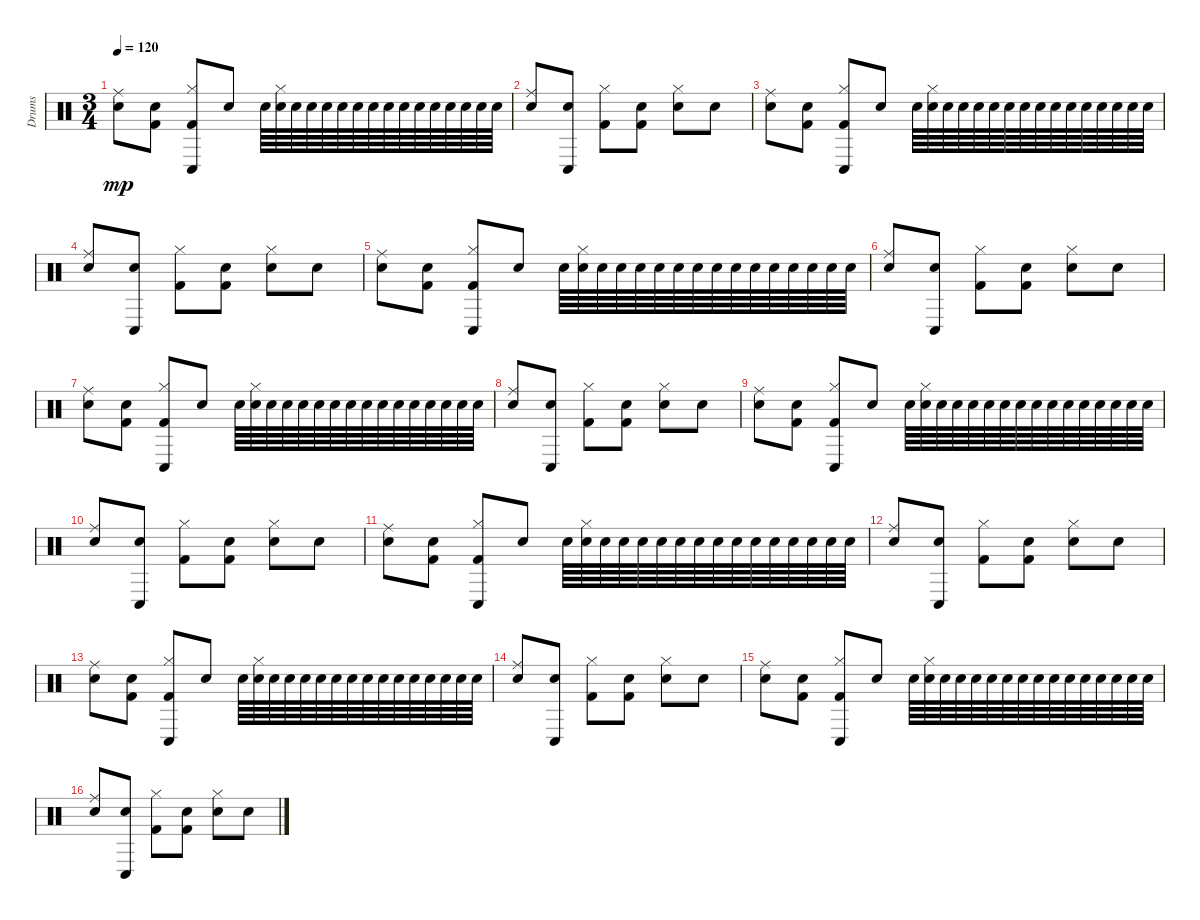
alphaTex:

\track ("Drums" "Drums") {instrument percussion}
\staff {score}
\articulation defaults
\ts (3 4)
\tempo 120
\clef neutral
\ks c
("Ride (middle)" "Snare (hit) 2").8{dy mp} ("Snare (hit) 2" "Kick (hit) 2").8 ("Hi-Hat (closed)" "Kick (hit) 2" "Conga low (hit)").8 "Snare (hit) 2".8 "Snare (hit) 2".64 ("Hi-Hat (closed)" "Snare (hit) 2").64 "Snare (hit) 2".64 "Snare (hit) 2".64 "Snare (hit) 2".64 "Snare (hit) 2".64 "Snare (hit) 2".64 "Snare (hit) 2".64 "Snare (hit) 2".64 "Snare (hit) 2".64 "Snare (hit) 2".64 "Snare (hit) 2".64 "Snare (hit) 2".64 "Snare (hit) 2".64 "Snare (hit) 2".64 "Snare (hit) 2".64 |
("Ride (middle)" "Snare (hit) 2").8 ("Snare (hit) 2" "Conga low (hit)").8 ("Hi-Hat (closed)" "Kick (hit) 2").8 ("Snare (hit) 2" "Kick (hit) 2").8 ("Hi-Hat (closed)" "Snare (hit) 2").8 "Snare (hit) 2".8 |
("Ride (middle)" "Snare (hit) 2").8 ("Snare (hit) 2" "Kick (hit) 2").8 ("Hi-Hat (closed)" "Kick (hit) 2" "Conga low (hit)").8 "Snare (hit) 2".8 "Snare (hit) 2".64 ("Hi-Hat (closed)" "Snare (hit) 2").64 "Snare (hit) 2".64 "Snare (hit) 2".64 "Snare (hit) 2".64 "Snare (hit) 2".64 "Snare (hit) 2".64 "Snare (hit) 2".64 "Snare (hit) 2".64 "Snare (hit) 2".64 "Snare (hit) 2".64 "Snare (hit) 2".64 "Snare (hit) 2".64 "Snare (hit) 2".64 "Snare (hit) 2".64 "Snare (hit) 2".64 |
("Ride (middle)" "Snare (hit) 2").8 ("Snare (hit) 2" "Conga low (hit)").8 ("Hi-Hat (closed)" "Kick (hit) 2").8 ("Snare (hit) 2" "Kick (hit) 2").8 ("Hi-Hat (closed)" "Snare (hit) 2").8 "Snare (hit) 2".8 |
("Ride (middle)" "Snare (hit) 2").8 ("Snare (hit) 2" "Kick (hit) 2").8 ("Hi-Hat (closed)" "Kick (hit) 2" "Conga low (hit)").8 "Snare (hit) 2".8 "Snare (hit) 2".64 ("Hi-Hat (closed)" "Snare (hit) 2").64 "Snare (hit) 2".64 "Snare (hit) 2".64 "Snare (hit) 2".64 "Snare (hit) 2".64 "Snare (hit) 2".64 "Snare (hit) 2".64 "Snare (hit) 2".64 "Snare (hit) 2".64 "Snare (hit) 2".64 "Snare (hit) 2".64 "Snare (hit) 2".64 "Snare (hit) 2".64 "Snare (hit) 2".64 "Snare (hit) 2".64 |
("Ride (middle)" "Snare (hit) 2").8 ("Snare (hit) 2" "Conga low (hit)").8 ("Hi-Hat (closed)" "Kick (hit) 2").8 ("Snare (hit) 2" "Kick (hit) 2").8 ("Hi-Hat (closed)" "Snare (hit) 2").8 "Snare (hit) 2".8 |
("Ride (middle)" "Snare (hit) 2").8 ("Snare (hit) 2" "Kick (hit) 2").8 ("Hi-Hat (closed)" "Kick (hit) 2" "Conga low (hit)").8 "Snare (hit) 2".8 "Snare (hit) 2".64 ("Hi-Hat (closed)" "Snare (hit) 2").64 "Snare (hit) 2".64 "Snare (hit) 2".64 "Snare (hit) 2".64 "Snare (hit) 2".64 "Snare (hit) 2".64 "Snare (hit) 2".64 "Snare (hit) 2".64 "Snare (hit) 2".64 "Snare (hit) 2".64 "Snare (hit) 2".64 "Snare (hit) 2".64 "Snare (hit) 2".64 "Snare (hit) 2".64 "Snare (hit) 2".64 |
("Ride (middle)" "Snare (hit) 2").8 ("Snare (hit) 2" "Conga low (hit)").8 ("Hi-Hat (closed)" "Kick (hit) 2").8 ("Snare (hit) 2" "Kick (hit) 2").8 ("Hi-Hat (closed)" "Snare (hit) 2").8 "Snare (hit) 2".8 |
("Ride (middle)" "Snare (hit) 2").8 ("Snare (hit) 2" "Kick (hit) 2").8 ("Hi-Hat (closed)" "Kick (hit) 2" "Conga low (hit)").8 "Snare (hit) 2".8 "Snare (hit) 2".64 ("Hi-Hat (closed)" "Snare (hit) 2").64 "Snare (hit) 2".64 "Snare (hit) 2".64 "Snare (hit) 2".64 "Snare (hit) 2".64 "Snare (hit) 2".64 "Snare (hit) 2".64 "Snare (hit) 2".64 "Snare (hit) 2".64 "Snare (hit) 2".64 "Snare (hit) 2".64 "Snare (hit) 2".64 "Snare (hit) 2".64 "Snare (hit) 2".64 "Snare (hit) 2".64 |
("Ride (middle)" "Snare (hit) 2").8 ("Snare (hit) 2" "Conga low (hit)").8 ("Hi-Hat (closed)" "Kick (hit) 2").8 ("Snare (hit) 2" "Kick (hit) 2").8 ("Hi-Hat (closed)" "Snare (hit) 2").8 "Snare (hit) 2".8 |
("Ride (middle)" "Snare (hit) 2").8 ("Snare (hit) 2" "Kick (hit) 2").8 ("Hi-Hat (closed)" "Kick (hit) 2" "Conga low (hit)").8 "Snare (hit) 2".8 "Snare (hit) 2".64 ("Hi-Hat (closed)" "Snare (hit) 2").64 "Snare (hit) 2".64 "Snare (hit) 2".64 "Snare (hit) 2".64 "Snare (hit) 2".64 "Snare (hit) 2".64 "Snare (hit) 2".64 "Snare (hit) 2".64 "Snare (hit) 2".64 "Snare (hit) 2".64 "Snare (hit) 2".64 "Snare (hit) 2".64 "Snare (hit) 2".64 "Snare (hit) 2".64 "Snare (hit) 2".64 |
("Ride (middle)" "Snare (hit) 2").8 ("Snare (hit) 2" "Conga low (hit)").8 ("Hi-Hat (closed)" "Kick (hit) 2").8 ("Snare (hit) 2" "Kick (hit) 2").8 ("Hi-Hat (closed)" "Snare (hit) 2").8 "Snare (hit) 2".8 |
("Ride (middle)" "Snare (hit) 2").8 ("Snare (hit) 2" "Kick (hit) 2").8 ("Hi-Hat (closed)" "Kick (hit) 2" "Conga low (hit)").8 "Snare (hit) 2".8 "Snare (hit) 2".64 ("Hi-Hat (closed)" "Snare (hit) 2").64 "Snare (hit) 2".64 "Snare (hit) 2".64 "Snare (hit) 2".64 "Snare (hit) 2".64 "Snare (hit) 2".64 "Snare (hit) 2".64 "Snare (hit) 2".64 "Snare (hit) 2".64 "Snare (hit) 2".64 "Snare (hit) 2".64 "Snare (hit) 2".64 "Snare (hit) 2".64 "Snare (hit) 2".64 "Snare (hit) 2".64 |
("Ride (middle)" "Snare (hit) 2").8 ("Snare (hit) 2" "Conga low (hit)").8 ("Hi-Hat (closed)" "Kick (hit) 2").8 ("Snare (hit) 2" "Kick (hit) 2").8 ("Hi-Hat (closed)" "Snare (hit) 2").8 "Snare (hit) 2".8 |
("Ride (middle)" "Snare (hit) 2").8 ("Snare (hit) 2" "Kick (hit) 2").8 ("Hi-Hat (closed)" "Kick (hit) 2" "Conga low (hit)").8 "Snare (hit) 2".8 "Snare (hit) 2".64 ("Hi-Hat (closed)" "Snare (hit) 2").64 "Snare (hit) 2".64 "Snare (hit) 2".64 "Snare (hit) 2".64 "Snare (hit) 2".64 "Snare (hit) 2".64 "Snare (hit) 2".64 "Snare (hit) 2".64 "Snare (hit) 2".64 "Snare (hit) 2".64 "Snare (hit) 2".64 "Snare (hit) 2".64 "Snare (hit) 2".64 "Snare (hit) 2".64 "Snare (hit) 2".64 |
("Ride (middle)" "Snare (hit) 2").8 ("Snare (hit) 2" "Conga low (hit)").8 ("Hi-Hat (closed)" "Kick (hit) 2").8 ("Snare (hit) 2" "Kick (hit) 2").8 ("Hi-Hat (closed)" "Snare (hit) 2").8 "Snare (hit) 2".8
